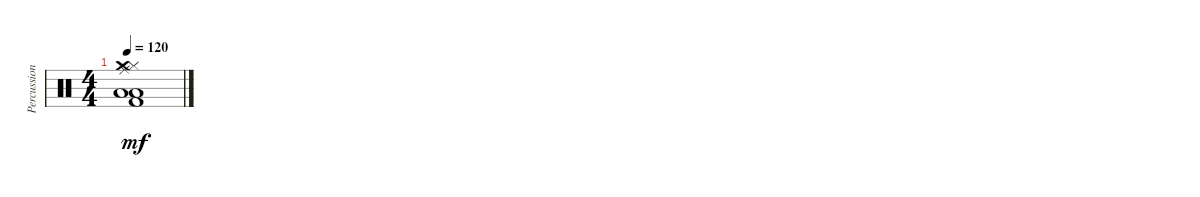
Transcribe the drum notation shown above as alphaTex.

\track ("Percussion" "Percussion") {instrument percussion}
\staff {score}
\articulation defaults
\ts (4 4)
\tempo 120
\clef neutral
\ks c
("Hi-Hat (closed)" "Crash medium (hit)" "Low Floor Tom (hit)" "Low Floor Tom (hit)" "Ride (middle)" "Kick (hit) 2").1{dy mf}
